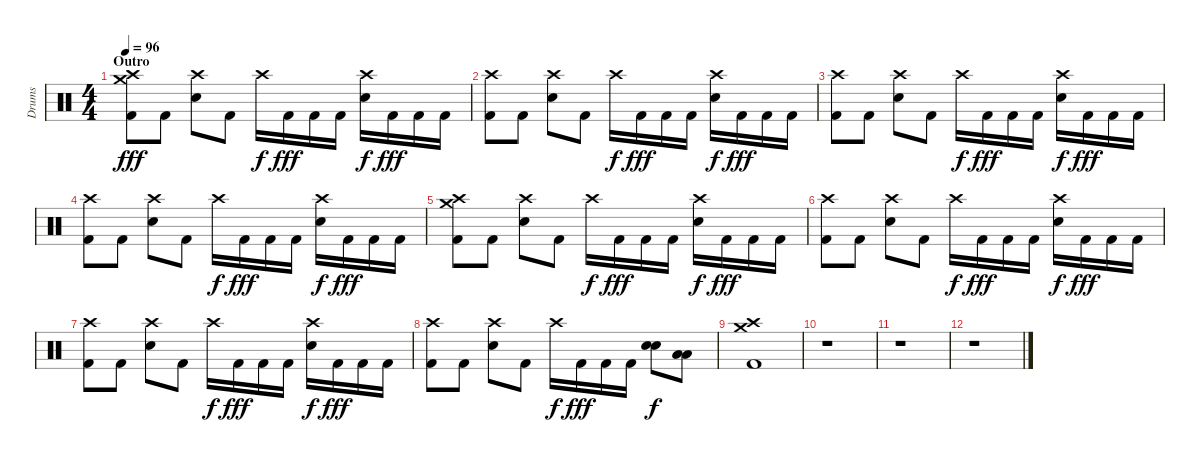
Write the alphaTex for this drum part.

\track ("Drums" "Drums") {instrument percussion}
\staff {score}
\articulation defaults
\ts (4 4)
\section ("" "Outro")
\tempo 96
\clef neutral
\ks c
("Crash high (hit)" "Crash medium (hit)" "Kick (hit) 2").8{dy fff} "Kick (hit) 2".8 ("Crash high (hit)" "Electric Snare (hit)").8 "Kick (hit) 2".8 "Crash high (hit)".16{dy f} "Kick (hit) 2".16{dy fff} "Kick (hit) 2".16 "Kick (hit) 2".16 ("Crash high (hit)" "Electric Snare (hit)").16{dy f} "Kick (hit) 2".16{dy fff} "Kick (hit) 2".16 "Kick (hit) 2".16 |
("Crash high (hit)" "Kick (hit) 2").8 "Kick (hit) 2".8 ("Crash high (hit)" "Electric Snare (hit)").8 "Kick (hit) 2".8 "Crash high (hit)".16{dy f} "Kick (hit) 2".16{dy fff} "Kick (hit) 2".16 "Kick (hit) 2".16 ("Crash high (hit)" "Electric Snare (hit)").16{dy f} "Kick (hit) 2".16{dy fff} "Kick (hit) 2".16 "Kick (hit) 2".16 |
("Crash high (hit)" "Kick (hit) 2").8 "Kick (hit) 2".8 ("Crash high (hit)" "Electric Snare (hit)").8 "Kick (hit) 2".8 "Crash high (hit)".16{dy f} "Kick (hit) 2".16{dy fff} "Kick (hit) 2".16 "Kick (hit) 2".16 ("Crash high (hit)" "Electric Snare (hit)").16{dy f} "Kick (hit) 2".16{dy fff} "Kick (hit) 2".16 "Kick (hit) 2".16 |
("Crash high (hit)" "Kick (hit) 2").8 "Kick (hit) 2".8 ("Crash high (hit)" "Electric Snare (hit)").8 "Kick (hit) 2".8 "Crash high (hit)".16{dy f} "Kick (hit) 2".16{dy fff} "Kick (hit) 2".16 "Kick (hit) 2".16 ("Crash high (hit)" "Electric Snare (hit)").16{dy f} "Kick (hit) 2".16{dy fff} "Kick (hit) 2".16 "Kick (hit) 2".16 |
("Crash high (hit)" "Crash medium (hit)" "Kick (hit) 2").8 "Kick (hit) 2".8 ("Crash high (hit)" "Electric Snare (hit)").8 "Kick (hit) 2".8 "Crash high (hit)".16{dy f} "Kick (hit) 2".16{dy fff} "Kick (hit) 2".16 "Kick (hit) 2".16 ("Crash high (hit)" "Electric Snare (hit)").16{dy f} "Kick (hit) 2".16{dy fff} "Kick (hit) 2".16 "Kick (hit) 2".16 |
("Crash high (hit)" "Kick (hit) 2").8 "Kick (hit) 2".8 ("Crash high (hit)" "Electric Snare (hit)").8 "Kick (hit) 2".8 "Crash high (hit)".16{dy f} "Kick (hit) 2".16{dy fff} "Kick (hit) 2".16 "Kick (hit) 2".16 ("Crash high (hit)" "Electric Snare (hit)").16{dy f} "Kick (hit) 2".16{dy fff} "Kick (hit) 2".16 "Kick (hit) 2".16 |
("Crash high (hit)" "Kick (hit) 2").8 "Kick (hit) 2".8 ("Crash high (hit)" "Electric Snare (hit)").8 "Kick (hit) 2".8 "Crash high (hit)".16{dy f} "Kick (hit) 2".16{dy fff} "Kick (hit) 2".16 "Kick (hit) 2".16 ("Crash high (hit)" "Electric Snare (hit)").16{dy f} "Kick (hit) 2".16{dy fff} "Kick (hit) 2".16 "Kick (hit) 2".16 |
("Crash high (hit)" "Kick (hit) 2").8 "Kick (hit) 2".8 ("Crash high (hit)" "Electric Snare (hit)").8 "Kick (hit) 2".8 "Crash high (hit)".16{dy f} "Kick (hit) 2".16{dy fff} "Kick (hit) 2".16 "Kick (hit) 2".16 ("Electric Snare (hit)" "Electric Snare (hit)").8{dy f} ("Low Tom (hit)" "Low Tom (hit)").8 |
("Crash high (hit)" "Crash medium (hit)" "Kick (hit) 2").1 |
r.1 |
r.1 |
r.1
